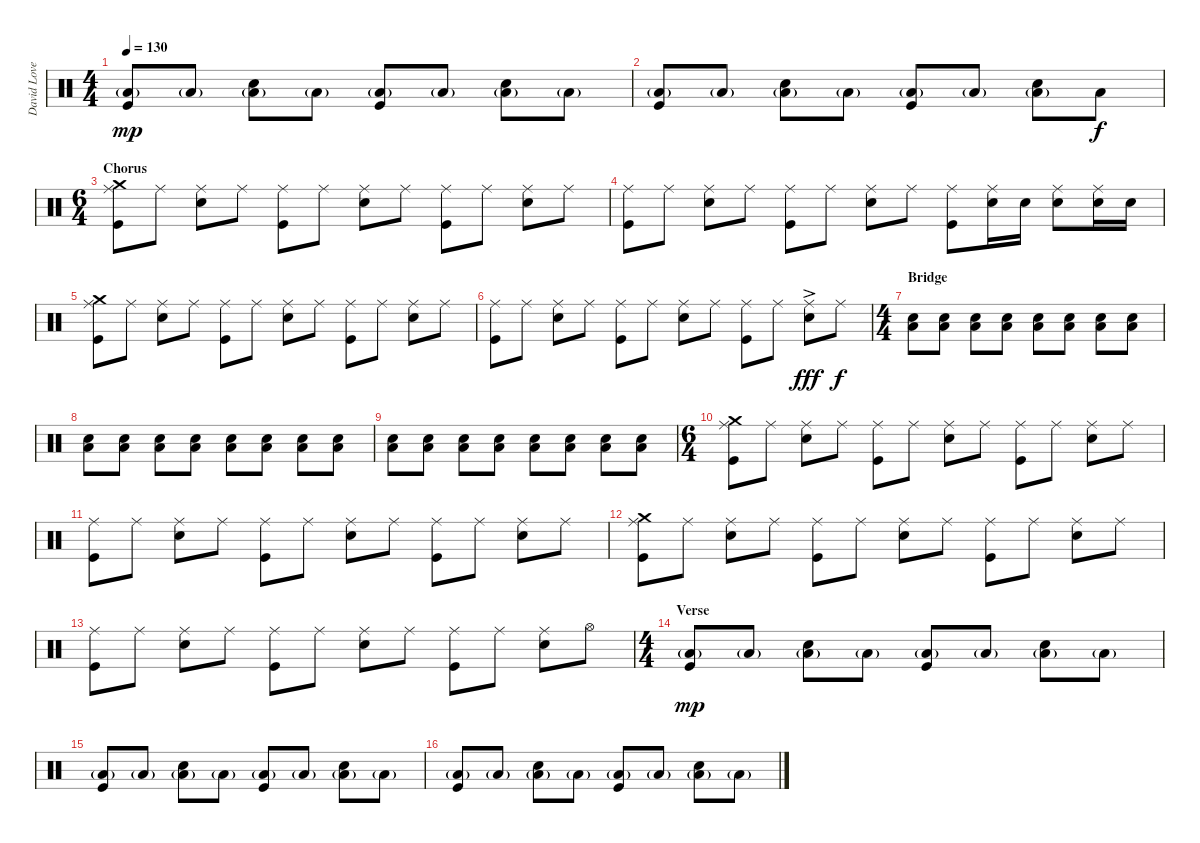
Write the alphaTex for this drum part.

\track ("David Lovering" "David Love") {instrument percussion}
\staff {score}
\articulation defaults
\ts (4 4)
\tempo 130
\clef neutral
\ks c
("Low Floor Tom (hit)"{g} "Kick (hit)").8{dy mp} "Low Floor Tom (hit)"{g}.8 ("Snare (hit) 2" "Low Floor Tom (hit)"{g}).8 "Low Floor Tom (hit)"{g}.8 ("Low Floor Tom (hit)"{g} "Kick (hit)").8 "Low Floor Tom (hit)"{g}.8 ("Snare (hit) 2" "Low Floor Tom (hit)"{g}).8 "Low Floor Tom (hit)"{g}.8 |
("Low Floor Tom (hit)"{g} "Kick (hit)").8 "Low Floor Tom (hit)"{g}.8 ("Snare (hit) 2" "Low Floor Tom (hit)"{g}).8 "Low Floor Tom (hit)"{g}.8 ("Low Floor Tom (hit)"{g} "Kick (hit)").8 "Low Floor Tom (hit)"{g}.8 ("Snare (hit) 2" "Low Floor Tom (hit)"{g}).8 "Low Floor Tom (hit)".8{dy f} |
\ts (6 4)
\section ("" "Chorus")
("Ride (middle)" "Crash medium (hit)" "Kick (hit)").8 "Ride (middle)".8 ("Ride (middle)" "Snare (hit) 2").8 "Ride (middle)".8 ("Ride (middle)" "Kick (hit)").8 "Ride (middle)".8 ("Ride (middle)" "Snare (hit) 2").8 "Ride (middle)".8 ("Ride (middle)" "Kick (hit)").8 "Ride (middle)".8 ("Ride (middle)" "Snare (hit) 2").8 "Ride (middle)".8 |
("Ride (middle)" "Kick (hit)").8 "Ride (middle)".8 ("Ride (middle)" "Snare (hit) 2").8 "Ride (middle)".8 ("Ride (middle)" "Kick (hit)").8 "Ride (middle)".8 ("Ride (middle)" "Snare (hit) 2").8 "Ride (middle)".8 ("Ride (middle)" "Kick (hit)").8 ("Ride (middle)" "Snare (hit) 2").16 "Snare (hit) 2".16 ("Ride (middle)" "Snare (hit) 2").8 ("Ride (middle)" "Snare (hit) 2").16 "Snare (hit) 2".16 |
("Ride (middle)" "Crash medium (hit)" "Kick (hit)").8 "Ride (middle)".8 ("Ride (middle)" "Snare (hit) 2").8 "Ride (middle)".8 ("Ride (middle)" "Kick (hit)").8 "Ride (middle)".8 ("Ride (middle)" "Snare (hit) 2").8 "Ride (middle)".8 ("Ride (middle)" "Kick (hit)").8 "Ride (middle)".8 ("Ride (middle)" "Snare (hit) 2").8 "Ride (middle)".8 |
("Ride (middle)" "Kick (hit)").8 "Ride (middle)".8 ("Ride (middle)" "Snare (hit) 2").8 "Ride (middle)".8 ("Ride (middle)" "Kick (hit)").8 "Ride (middle)".8 ("Ride (middle)" "Snare (hit) 2").8 "Ride (middle)".8 ("Ride (middle)" "Kick (hit)").8 "Ride (middle)".8 ("Ride (middle)" "Snare (hit) 2"{ac}).8{dy fff} "Ride (middle)".8{dy f} |
\ts (4 4)
\section ("" "Bridge")
("Snare (hit) 2" "Low Floor Tom (hit)").8 ("Snare (hit) 2" "Low Floor Tom (hit)").8 ("Snare (hit) 2" "Low Floor Tom (hit)").8 ("Snare (hit) 2" "Low Floor Tom (hit)").8 ("Snare (hit) 2" "Low Floor Tom (hit)").8 ("Snare (hit) 2" "Low Floor Tom (hit)").8 ("Snare (hit) 2" "Low Floor Tom (hit)").8 ("Snare (hit) 2" "Low Floor Tom (hit)").8 |
("Snare (hit) 2" "Low Floor Tom (hit)").8 ("Snare (hit) 2" "Low Floor Tom (hit)").8 ("Snare (hit) 2" "Low Floor Tom (hit)").8 ("Snare (hit) 2" "Low Floor Tom (hit)").8 ("Snare (hit) 2" "Low Floor Tom (hit)").8 ("Snare (hit) 2" "Low Floor Tom (hit)").8 ("Snare (hit) 2" "Low Floor Tom (hit)").8 ("Snare (hit) 2" "Low Floor Tom (hit)").8 |
("Snare (hit) 2" "Low Floor Tom (hit)").8 ("Snare (hit) 2" "Low Floor Tom (hit)").8 ("Snare (hit) 2" "Low Floor Tom (hit)").8 ("Snare (hit) 2" "Low Floor Tom (hit)").8 ("Snare (hit) 2" "Low Floor Tom (hit)").8 ("Snare (hit) 2" "Low Floor Tom (hit)").8 ("Snare (hit) 2" "Low Floor Tom (hit)").8 ("Snare (hit) 2" "Low Floor Tom (hit)").8 |
\ts (6 4)
("Ride (middle)" "Crash medium (hit)" "Kick (hit)").8 "Ride (middle)".8 ("Ride (middle)" "Snare (hit) 2").8 "Ride (middle)".8 ("Ride (middle)" "Kick (hit)").8 "Ride (middle)".8 ("Ride (middle)" "Snare (hit) 2").8 "Ride (middle)".8 ("Ride (middle)" "Kick (hit)").8 "Ride (middle)".8 ("Ride (middle)" "Snare (hit) 2").8 "Ride (middle)".8 |
("Ride (middle)" "Kick (hit)").8 "Ride (middle)".8 ("Ride (middle)" "Snare (hit) 2").8 "Ride (middle)".8 ("Ride (middle)" "Kick (hit)").8 "Ride (middle)".8 ("Ride (middle)" "Snare (hit) 2").8 "Ride (middle)".8 ("Ride (middle)" "Kick (hit)").8 "Ride (middle)".8 ("Ride (middle)" "Snare (hit) 2").8 "Ride (middle)".8 |
("Ride (middle)" "Crash medium (hit)" "Kick (hit)").8 "Ride (middle)".8 ("Ride (middle)" "Snare (hit) 2").8 "Ride (middle)".8 ("Ride (middle)" "Kick (hit)").8 "Ride (middle)".8 ("Ride (middle)" "Snare (hit) 2").8 "Ride (middle)".8 ("Ride (middle)" "Kick (hit)").8 "Ride (middle)".8 ("Ride (middle)" "Snare (hit) 2").8 "Ride (middle)".8 |
("Ride (middle)" "Kick (hit)").8 "Ride (middle)".8 ("Ride (middle)" "Snare (hit) 2").8 "Ride (middle)".8 ("Ride (middle)" "Kick (hit)").8 "Ride (middle)".8 ("Ride (middle)" "Snare (hit) 2").8 "Ride (middle)".8 ("Ride (middle)" "Kick (hit)").8 "Ride (middle)".8 ("Ride (middle)" "Snare (hit) 2").8 "Hi-Hat (open)".8 |
\ts (4 4)
\section ("" "Verse")
("Low Floor Tom (hit)"{g} "Kick (hit)").8{dy mp} "Low Floor Tom (hit)"{g}.8 ("Snare (hit) 2" "Low Floor Tom (hit)"{g}).8 "Low Floor Tom (hit)"{g}.8 ("Low Floor Tom (hit)"{g} "Kick (hit)").8 "Low Floor Tom (hit)"{g}.8 ("Snare (hit) 2" "Low Floor Tom (hit)"{g}).8 "Low Floor Tom (hit)"{g}.8 |
("Low Floor Tom (hit)"{g} "Kick (hit)").8 "Low Floor Tom (hit)"{g}.8 ("Snare (hit) 2" "Low Floor Tom (hit)"{g}).8 "Low Floor Tom (hit)"{g}.8 ("Low Floor Tom (hit)"{g} "Kick (hit)").8 "Low Floor Tom (hit)"{g}.8 ("Snare (hit) 2" "Low Floor Tom (hit)"{g}).8 "Low Floor Tom (hit)"{g}.8 |
("Low Floor Tom (hit)"{g} "Kick (hit)").8 "Low Floor Tom (hit)"{g}.8 ("Snare (hit) 2" "Low Floor Tom (hit)"{g}).8 "Low Floor Tom (hit)"{g}.8 ("Low Floor Tom (hit)"{g} "Kick (hit)").8 "Low Floor Tom (hit)"{g}.8 ("Snare (hit) 2" "Low Floor Tom (hit)"{g}).8 "Low Floor Tom (hit)"{g}.8
